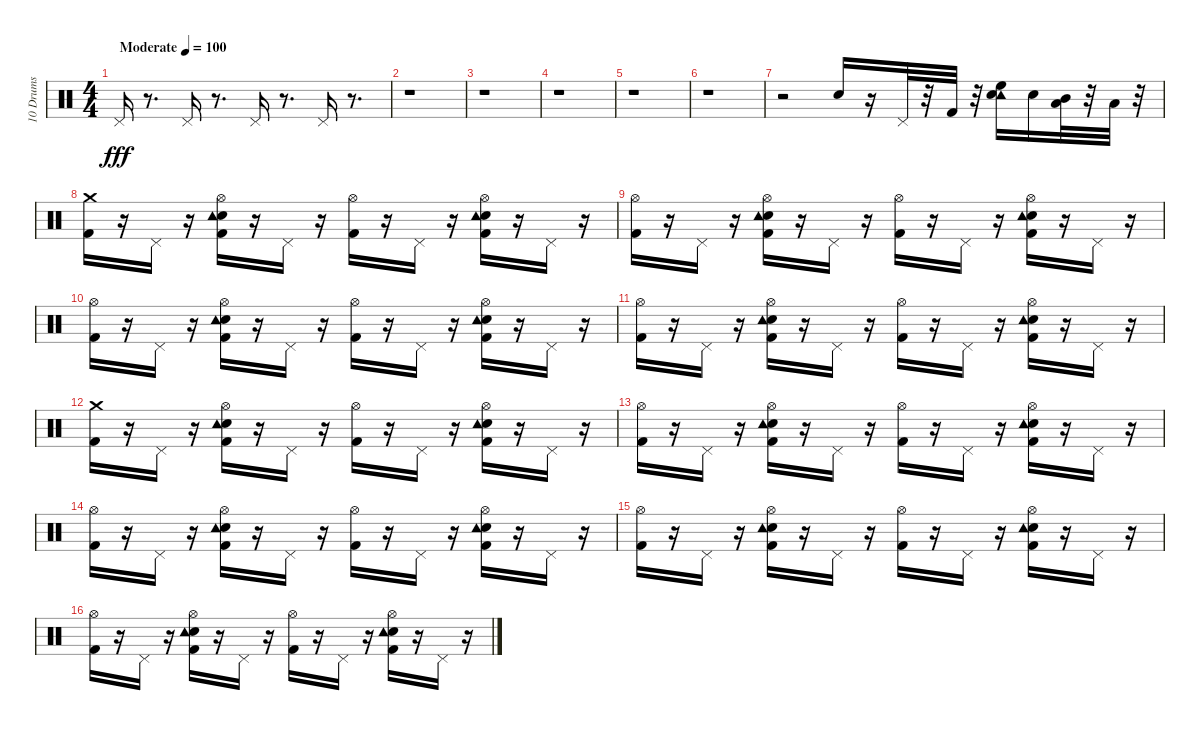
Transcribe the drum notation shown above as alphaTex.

\track ("10 Drums" "10 Drums") {instrument percussion}
\staff {score}
\articulation defaults
\ts (4 4)
\tempo (100 "Moderate")
\clef neutral
\ks c "Pedal Hi-Hat (hit)".16{dy fff}
r.8{d} "Pedal Hi-Hat (hit)".16 r.8{d} "Pedal Hi-Hat (hit)".16 r.8{d} "Pedal Hi-Hat (hit)".16 r.8{d} |
r.1 |
r.1 |
r.1 |
r.1 |
r.1 |
r.2 "Electric Snare (hit)".16 r.16 "Pedal Hi-Hat (hit)".32 r.32 "Kick (hit) 2".32 r.32 ("Tambourine (hit)" "Electric Snare (hit)" "High Floor Tom (hit)").16 "Electric Snare (hit)".16 ("Mid Tom (hit)" "Low Floor Tom (hit)").32 r.32 "Low Floor Tom (hit)".32 r.32 |
("Kick (hit) 2" "Crash medium (hit)").16 r.16 "Pedal Hi-Hat (hit)".16 r.16 ("Hi-Hat (open)" "Electric Snare (hit)" "Kick (hit) 2" "Tambourine (hit)").16 r.16 "Pedal Hi-Hat (hit)".16 r.16 ("Hi-Hat (open)" "Kick (hit) 2").16 r.16 "Pedal Hi-Hat (hit)".16 r.16 ("Hi-Hat (open)" "Kick (hit) 2" "Electric Snare (hit)" "Tambourine (hit)").16 r.16 "Pedal Hi-Hat (hit)".16 r.16 |
("Hi-Hat (open)" "Kick (hit) 2").16 r.16 "Pedal Hi-Hat (hit)".16 r.16 ("Hi-Hat (open)" "Electric Snare (hit)" "Kick (hit) 2" "Tambourine (hit)").16 r.16 "Pedal Hi-Hat (hit)".16 r.16 ("Hi-Hat (open)" "Kick (hit) 2").16 r.16 "Pedal Hi-Hat (hit)".16 r.16 ("Hi-Hat (open)" "Kick (hit) 2" "Electric Snare (hit)" "Tambourine (hit)").16 r.16 "Pedal Hi-Hat (hit)".16 r.16 |
("Hi-Hat (open)" "Kick (hit) 2").16 r.16 "Pedal Hi-Hat (hit)".16 r.16 ("Hi-Hat (open)" "Electric Snare (hit)" "Kick (hit) 2" "Tambourine (hit)").16 r.16 "Pedal Hi-Hat (hit)".16 r.16 ("Hi-Hat (open)" "Kick (hit) 2").16 r.16 "Pedal Hi-Hat (hit)".16 r.16 ("Hi-Hat (open)" "Kick (hit) 2" "Electric Snare (hit)" "Tambourine (hit)").16 r.16 "Pedal Hi-Hat (hit)".16 r.16 |
("Hi-Hat (open)" "Kick (hit) 2").16 r.16 "Pedal Hi-Hat (hit)".16 r.16 ("Hi-Hat (open)" "Electric Snare (hit)" "Kick (hit) 2" "Tambourine (hit)").16 r.16 "Pedal Hi-Hat (hit)".16 r.16 ("Hi-Hat (open)" "Kick (hit) 2").16 r.16 "Pedal Hi-Hat (hit)".16 r.16 ("Hi-Hat (open)" "Kick (hit) 2" "Electric Snare (hit)" "Tambourine (hit)").16 r.16 "Pedal Hi-Hat (hit)".16 r.16 |
("Kick (hit) 2" "Crash medium (hit)").16 r.16 "Pedal Hi-Hat (hit)".16 r.16 ("Hi-Hat (open)" "Electric Snare (hit)" "Kick (hit) 2" "Tambourine (hit)").16 r.16 "Pedal Hi-Hat (hit)".16 r.16 ("Hi-Hat (open)" "Kick (hit) 2").16 r.16 "Pedal Hi-Hat (hit)".16 r.16 ("Hi-Hat (open)" "Kick (hit) 2" "Electric Snare (hit)" "Tambourine (hit)").16 r.16 "Pedal Hi-Hat (hit)".16 r.16 |
("Hi-Hat (open)" "Kick (hit) 2").16 r.16 "Pedal Hi-Hat (hit)".16 r.16 ("Hi-Hat (open)" "Electric Snare (hit)" "Kick (hit) 2" "Tambourine (hit)").16 r.16 "Pedal Hi-Hat (hit)".16 r.16 ("Hi-Hat (open)" "Kick (hit) 2").16 r.16 "Pedal Hi-Hat (hit)".16 r.16 ("Hi-Hat (open)" "Kick (hit) 2" "Electric Snare (hit)" "Tambourine (hit)").16 r.16 "Pedal Hi-Hat (hit)".16 r.16 |
("Hi-Hat (open)" "Kick (hit) 2").16 r.16 "Pedal Hi-Hat (hit)".16 r.16 ("Hi-Hat (open)" "Electric Snare (hit)" "Kick (hit) 2" "Tambourine (hit)").16 r.16 "Pedal Hi-Hat (hit)".16 r.16 ("Hi-Hat (open)" "Kick (hit) 2").16 r.16 "Pedal Hi-Hat (hit)".16 r.16 ("Hi-Hat (open)" "Kick (hit) 2" "Electric Snare (hit)" "Tambourine (hit)").16 r.16 "Pedal Hi-Hat (hit)".16 r.16 |
("Hi-Hat (open)" "Kick (hit) 2").16 r.16 "Pedal Hi-Hat (hit)".16 r.16 ("Hi-Hat (open)" "Electric Snare (hit)" "Kick (hit) 2" "Tambourine (hit)").16 r.16 "Pedal Hi-Hat (hit)".16 r.16 ("Hi-Hat (open)" "Kick (hit) 2").16 r.16 "Pedal Hi-Hat (hit)".16 r.16 ("Hi-Hat (open)" "Kick (hit) 2" "Electric Snare (hit)" "Tambourine (hit)").16 r.16 "Pedal Hi-Hat (hit)".16 r.16 |
("Hi-Hat (open)" "Kick (hit) 2").16 r.16 "Pedal Hi-Hat (hit)".16 r.16 ("Hi-Hat (open)" "Electric Snare (hit)" "Kick (hit) 2" "Tambourine (hit)").16 r.16 "Pedal Hi-Hat (hit)".16 r.16 ("Hi-Hat (open)" "Kick (hit) 2").16 r.16 "Pedal Hi-Hat (hit)".16 r.16 ("Hi-Hat (open)" "Kick (hit) 2" "Electric Snare (hit)" "Tambourine (hit)").16 r.16 "Pedal Hi-Hat (hit)".16 r.16
